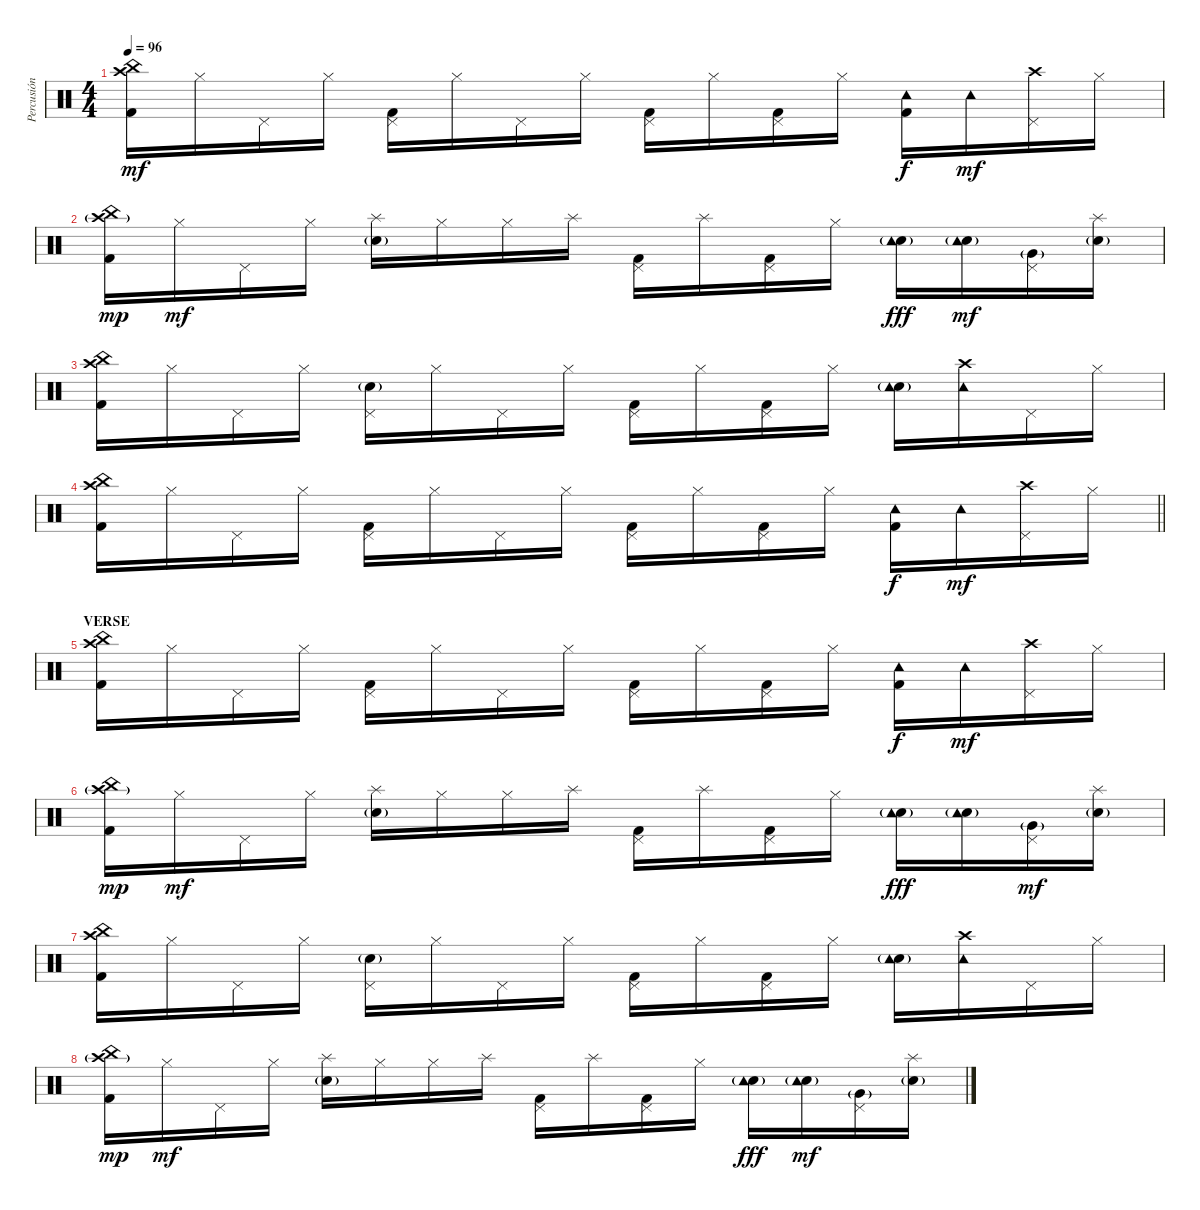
\track ("Percusión" "Percusión") {instrument percussion}
\staff {score}
\articulation defaults
\ts (4 4)
\tempo 96
\clef neutral
\ks c
("China (hit)" "Kick (hit) 2" "Crash high (hit)").16{dy mf} "Hi-Hat (closed)".16 "Pedal Hi-Hat (hit)".16 "Hi-Hat (closed)".16 ("Kick (hit) 2" "Pedal Hi-Hat (hit)").16 "Hi-Hat (closed)".16 "Pedal Hi-Hat (hit)".16 "Hi-Hat (closed)".16 ("Kick (hit) 2" "Pedal Hi-Hat (hit)").16 "Hi-Hat (closed)".16 ("Kick (hit) 2" "Pedal Hi-Hat (hit)").16 "Hi-Hat (closed)".16 ("Kick (hit) 2" "Tambourine (hit)").16{dy f} "Tambourine (hit)".16{dy mf} ("Crash high (hit)" "Pedal Hi-Hat (hit)").16 "Hi-Hat (closed)".16 |
("China (hit)" "Kick (hit) 2" "Crash high (hit)"{g}).16{dy mp} "Hi-Hat (closed)".16{dy mf} "Pedal Hi-Hat (hit)".16 "Hi-Hat (closed)".16 ("Electric Snare (hit)"{g} "Splash (hit)").16 "Hi-Hat (closed)".16 "Hi-Hat (closed)".16 "Splash (hit)".16 ("Kick (hit) 2" "Pedal Hi-Hat (hit)").16 "Splash (hit)".16 ("Kick (hit) 2" "Pedal Hi-Hat (hit)").16 "Hi-Hat (closed)".16 ("Electric Snare (hit)"{g} "Tambourine (hit)").16{dy fff} ("Electric Snare (hit)"{g} "Tambourine (hit)").16{dy mf} ("Very Low Tom (hit)"{g} "Pedal Hi-Hat (hit)").16 ("Electric Snare (hit)"{g} "Splash (hit)").16 |
("China (hit)" "Kick (hit) 2" "Crash high (hit)").16 "Hi-Hat (closed)".16 "Pedal Hi-Hat (hit)".16 "Hi-Hat (closed)".16 ("Electric Snare (hit)"{g} "Pedal Hi-Hat (hit)").16 "Hi-Hat (closed)".16 "Pedal Hi-Hat (hit)".16 "Hi-Hat (closed)".16 ("Kick (hit) 2" "Pedal Hi-Hat (hit)").16 "Hi-Hat (closed)".16 ("Kick (hit) 2" "Pedal Hi-Hat (hit)").16 "Hi-Hat (closed)".16 ("Electric Snare (hit)"{g} "Tambourine (hit)").16 ("Crash high (hit)" "Tambourine (hit)").16 "Pedal Hi-Hat (hit)".16 "Hi-Hat (closed)".16 |
\barLineRight lightlight
("China (hit)" "Kick (hit) 2" "Crash high (hit)").16 "Hi-Hat (closed)".16 "Pedal Hi-Hat (hit)".16 "Hi-Hat (closed)".16 ("Kick (hit) 2" "Pedal Hi-Hat (hit)").16 "Hi-Hat (closed)".16 "Pedal Hi-Hat (hit)".16 "Hi-Hat (closed)".16 ("Kick (hit) 2" "Pedal Hi-Hat (hit)").16 "Hi-Hat (closed)".16 ("Kick (hit) 2" "Pedal Hi-Hat (hit)").16 "Hi-Hat (closed)".16 ("Kick (hit) 2" "Tambourine (hit)").16{dy f} "Tambourine (hit)".16{dy mf} ("Crash high (hit)" "Pedal Hi-Hat (hit)").16 "Hi-Hat (closed)".16 |
\section ("" "VERSE")
("China (hit)" "Kick (hit) 2" "Crash high (hit)").16 "Hi-Hat (closed)".16 "Pedal Hi-Hat (hit)".16 "Hi-Hat (closed)".16 ("Kick (hit) 2" "Pedal Hi-Hat (hit)").16 "Hi-Hat (closed)".16 "Pedal Hi-Hat (hit)".16 "Hi-Hat (closed)".16 ("Kick (hit) 2" "Pedal Hi-Hat (hit)").16 "Hi-Hat (closed)".16 ("Kick (hit) 2" "Pedal Hi-Hat (hit)").16 "Hi-Hat (closed)".16 ("Kick (hit) 2" "Tambourine (hit)").16{dy f} "Tambourine (hit)".16{dy mf} ("Crash high (hit)" "Pedal Hi-Hat (hit)").16 "Hi-Hat (closed)".16 |
("China (hit)" "Kick (hit) 2" "Crash high (hit)"{g}).16{dy mp} "Hi-Hat (closed)".16{dy mf} "Pedal Hi-Hat (hit)".16 "Hi-Hat (closed)".16 ("Electric Snare (hit)"{g} "Splash (hit)").16 "Hi-Hat (closed)".16 "Hi-Hat (closed)".16 "Splash (hit)".16 ("Kick (hit) 2" "Pedal Hi-Hat (hit)").16 "Splash (hit)".16 ("Kick (hit) 2" "Pedal Hi-Hat (hit)").16 "Hi-Hat (closed)".16 ("Electric Snare (hit)"{g} "Tambourine (hit)").16{dy fff} ("Electric Snare (hit)"{g} "Tambourine (hit)").16 ("Very Low Tom (hit)"{g} "Pedal Hi-Hat (hit)").16{dy mf} ("Electric Snare (hit)"{g} "Splash (hit)").16 |
("China (hit)" "Kick (hit) 2" "Crash high (hit)").16 "Hi-Hat (closed)".16 "Pedal Hi-Hat (hit)".16 "Hi-Hat (closed)".16 ("Electric Snare (hit)"{g} "Pedal Hi-Hat (hit)").16 "Hi-Hat (closed)".16 "Pedal Hi-Hat (hit)".16 "Hi-Hat (closed)".16 ("Kick (hit) 2" "Pedal Hi-Hat (hit)").16 "Hi-Hat (closed)".16 ("Kick (hit) 2" "Pedal Hi-Hat (hit)").16 "Hi-Hat (closed)".16 ("Electric Snare (hit)"{g} "Tambourine (hit)").16 ("Crash high (hit)" "Tambourine (hit)").16 "Pedal Hi-Hat (hit)".16 "Hi-Hat (closed)".16 |
("China (hit)" "Kick (hit) 2" "Crash high (hit)"{g}).16{dy mp} "Hi-Hat (closed)".16{dy mf} "Pedal Hi-Hat (hit)".16 "Hi-Hat (closed)".16 ("Electric Snare (hit)"{g} "Splash (hit)").16 "Hi-Hat (closed)".16 "Hi-Hat (closed)".16 "Splash (hit)".16 ("Kick (hit) 2" "Pedal Hi-Hat (hit)").16 "Splash (hit)".16 ("Kick (hit) 2" "Pedal Hi-Hat (hit)").16 "Hi-Hat (closed)".16 ("Electric Snare (hit)"{g} "Tambourine (hit)").16{dy fff} ("Electric Snare (hit)"{g} "Tambourine (hit)").16{dy mf} ("Very Low Tom (hit)"{g} "Pedal Hi-Hat (hit)").16 ("Electric Snare (hit)"{g} "Splash (hit)").16
